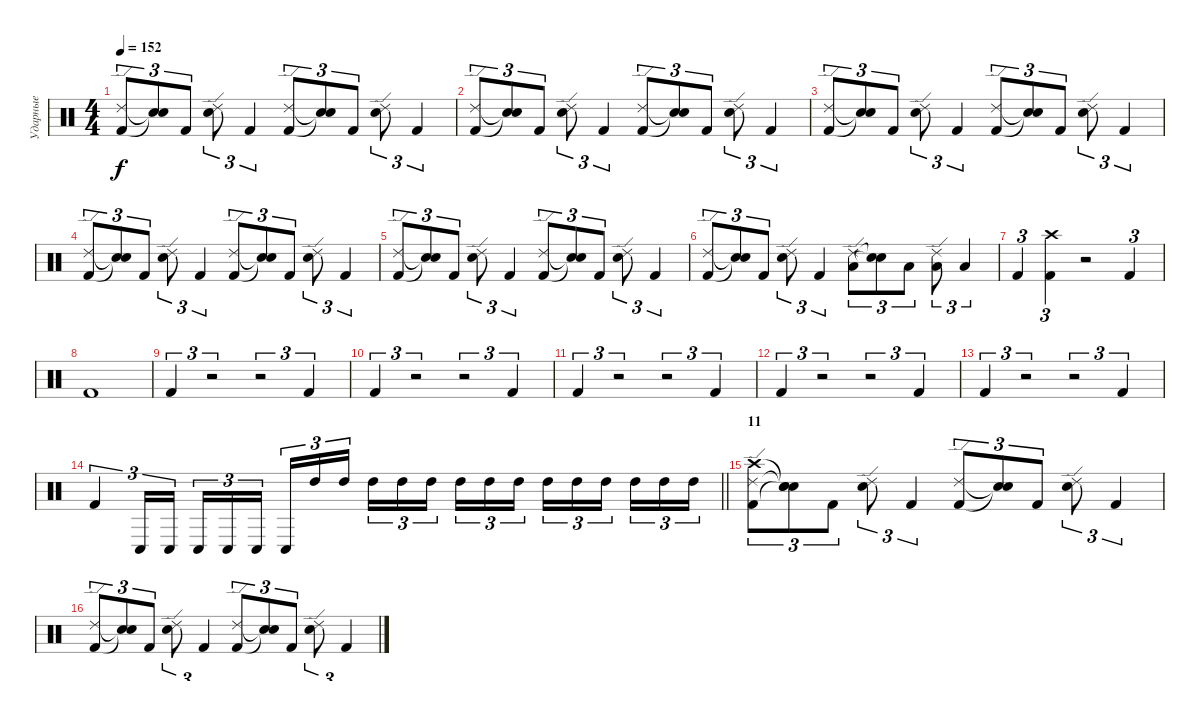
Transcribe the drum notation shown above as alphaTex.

\track ("Ударные" "Ударные") {instrument percussion}
\staff {score}
\articulation defaults
\ts (4 4)
\tempo 152
\clef neutral
\ks c
("Kick (hit) 2" "Ride (edge) 2").8{tu (3 2) dy f} ("Snare (hit)"{t} "Snare (hit)"{t}).8{tu (3 2)} "Kick (hit) 2".8{tu (3 2)} ("Electric Snare (hit)" "Ride (edge) 2").8{tu (3 2)} "Kick (hit) 2".4{tu (3 2)} ("Kick (hit) 2" "Ride (edge) 2").8{tu (3 2)} ("Snare (hit)"{t} "Snare (hit)"{t}).8{tu (3 2)} "Kick (hit) 2".8{tu (3 2)} ("Electric Snare (hit)" "Ride (edge) 2").8{tu (3 2)} "Kick (hit) 2".4{tu (3 2)} |
("Kick (hit) 2" "Ride (edge) 2").8{tu (3 2)} ("Snare (hit)"{t} "Snare (hit)"{t}).8{tu (3 2)} "Kick (hit) 2".8{tu (3 2)} ("Electric Snare (hit)" "Ride (edge) 2").8{tu (3 2)} "Kick (hit) 2".4{tu (3 2)} ("Kick (hit) 2" "Ride (edge) 2").8{tu (3 2)} ("Snare (hit)"{t} "Snare (hit)"{t}).8{tu (3 2)} "Kick (hit) 2".8{tu (3 2)} ("Electric Snare (hit)" "Ride (edge) 2").8{tu (3 2)} "Kick (hit) 2".4{tu (3 2)} |
("Kick (hit) 2" "Ride (edge) 2").8{tu (3 2)} ("Snare (hit)"{t} "Snare (hit)"{t}).8{tu (3 2)} "Kick (hit) 2".8{tu (3 2)} ("Electric Snare (hit)" "Ride (edge) 2").8{tu (3 2)} "Kick (hit) 2".4{tu (3 2)} ("Kick (hit) 2" "Ride (edge) 2").8{tu (3 2)} ("Snare (hit)"{t} "Snare (hit)"{t}).8{tu (3 2)} "Kick (hit) 2".8{tu (3 2)} ("Electric Snare (hit)" "Ride (edge) 2").8{tu (3 2)} "Kick (hit) 2".4{tu (3 2)} |
("Kick (hit) 2" "Ride (edge) 2").8{tu (3 2)} ("Snare (hit)"{t} "Snare (hit)"{t}).8{tu (3 2)} "Kick (hit) 2".8{tu (3 2)} ("Electric Snare (hit)" "Ride (edge) 2").8{tu (3 2)} "Kick (hit) 2".4{tu (3 2)} ("Kick (hit) 2" "Ride (edge) 2").8{tu (3 2)} ("Snare (hit)"{t} "Snare (hit)"{t}).8{tu (3 2)} "Kick (hit) 2".8{tu (3 2)} ("Electric Snare (hit)" "Ride (edge) 2").8{tu (3 2)} "Kick (hit) 2".4{tu (3 2)} |
("Kick (hit) 2" "Ride (edge) 2").8{tu (3 2)} ("Snare (hit)"{t} "Snare (hit)"{t}).8{tu (3 2)} "Kick (hit) 2".8{tu (3 2)} ("Electric Snare (hit)" "Ride (edge) 2").8{tu (3 2)} "Kick (hit) 2".4{tu (3 2)} ("Kick (hit) 2" "Ride (edge) 2").8{tu (3 2)} ("Snare (hit)"{t} "Snare (hit)"{t}).8{tu (3 2)} "Kick (hit) 2".8{tu (3 2)} ("Electric Snare (hit)" "Ride (edge) 2").8{tu (3 2)} "Kick (hit) 2".4{tu (3 2)} |
("Kick (hit) 2" "Ride (edge) 2").8{tu (3 2)} ("Snare (hit)"{t} "Snare (hit)"{t}).8{tu (3 2)} "Kick (hit) 2".8{tu (3 2)} ("Electric Snare (hit)" "Ride (edge) 2").8{tu (3 2)} "Kick (hit) 2".4{tu (3 2)} ("Low Tom (hit)" "Ride (edge) 2").8{tu (3 2)} ("Snare (hit)"{t} "Snare (hit)"{t}).8{tu (3 2)} "Low Tom (hit)".8{tu (3 2)} ("Low Tom (hit)" "Ride (edge) 2").8{tu (3 2)} "Low Tom (hit)".4{tu (3 2)} |
"Kick (hit) 2".4{tu (3 2)} ("Kick (hit) 2" "Crash high (hit)").4{tu (3 2)} r.2 "Kick (hit) 2".4{tu (3 2)} |
"Kick (hit) 2".1 |
"Kick (hit) 2".4{tu (3 2)} r.2{tu (3 2)} r.2{tu (3 2)} "Kick (hit) 2".4{tu (3 2)} |
"Kick (hit) 2".4{tu (3 2)} r.2{tu (3 2)} r.2{tu (3 2)} "Kick (hit) 2".4{tu (3 2)} |
"Kick (hit) 2".4{tu (3 2)} r.2{tu (3 2)} r.2{tu (3 2)} "Kick (hit) 2".4{tu (3 2)} |
"Kick (hit) 2".4{tu (3 2)} r.2{tu (3 2)} r.2{tu (3 2)} "Kick (hit) 2".4{tu (3 2)} |
"Kick (hit) 2".4{tu (3 2)} r.2{tu (3 2)} r.2{tu (3 2)} "Kick (hit) 2".4{tu (3 2)} |
\barLineRight lightlight "Kick (hit) 2".4{tu (3 2)} "Conga low (hit)".16{tu (3 2)} "Conga low (hit)".16{tu (3 2)} "Conga low (hit)".16{tu (3 2)} "Conga low (hit)".16{tu (3 2)} "Conga low (hit)".16{tu (3 2) beam splitsecondary} "Conga low (hit)".16{tu (3 2)} "High Tom (hit)".16{tu (3 2)} "High Tom (hit)".16{tu (3 2)} "High Tom (hit)".16{tu (3 2)} "High Tom (hit)".16{tu (3 2)} "High Tom (hit)".16{tu (3 2) beam splitsecondary} "High Tom (hit)".16{tu (3 2)} "High Tom (hit)".16{tu (3 2)} "High Tom (hit)".16{tu (3 2)} "High Tom (hit)".16{tu (3 2)} "High Tom (hit)".16{tu (3 2)} "High Tom (hit)".16{tu (3 2) beam splitsecondary} "High Tom (hit)".16{tu (3 2)} "High Tom (hit)".16{tu (3 2)} "High Tom (hit)".16{tu (3 2)}
|
\section ("" "11")
("Kick (hit) 2" "Crash high (hit)" "Ride (edge) 2").8{tu (3 2)} ("Snare (hit)"{t} "Snare (hit)"{t} "Snare (hit)"{t}).8{tu (3 2)} "Kick (hit) 2".8{tu (3 2)} ("Electric Snare (hit)" "Ride (edge) 2").8{tu (3 2)} "Kick (hit) 2".4{tu (3 2)} ("Kick (hit) 2" "Ride (edge) 2").8{tu (3 2)} ("Snare (hit)"{t} "Snare (hit)"{t}).8{tu (3 2)} "Kick (hit) 2".8{tu (3 2)} ("Electric Snare (hit)" "Ride (edge) 2").8{tu (3 2)} "Kick (hit) 2".4{tu (3 2)} |
("Kick (hit) 2" "Ride (edge) 2").8{tu (3 2)} ("Snare (hit)"{t} "Snare (hit)"{t}).8{tu (3 2)} "Kick (hit) 2".8{tu (3 2)} ("Electric Snare (hit)" "Ride (edge) 2").8{tu (3 2)} "Kick (hit) 2".4{tu (3 2)} ("Kick (hit) 2" "Ride (edge) 2").8{tu (3 2)} ("Snare (hit)"{t} "Snare (hit)"{t}).8{tu (3 2)} "Kick (hit) 2".8{tu (3 2)} ("Electric Snare (hit)" "Ride (edge) 2").8{tu (3 2)} "Kick (hit) 2".4{tu (3 2)}
